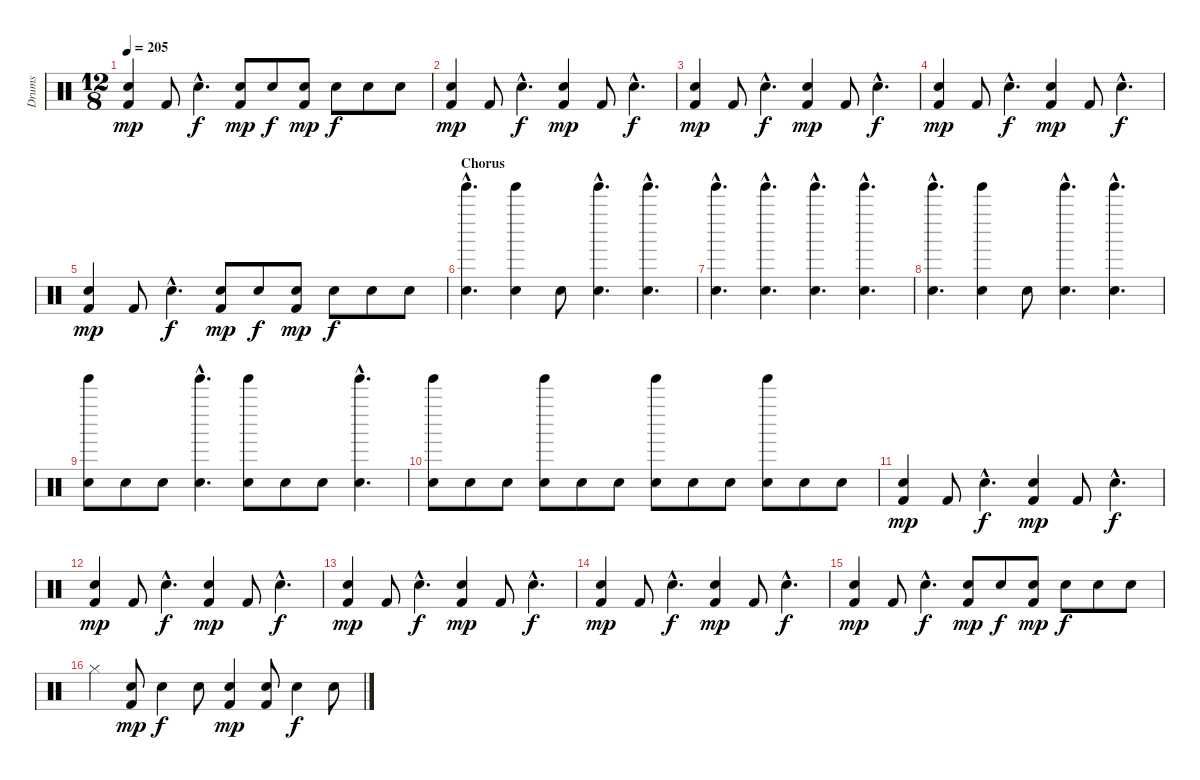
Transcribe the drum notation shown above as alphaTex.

\track ("Drums" "Drums") {instrument percussion}
\staff {score}
\articulation defaults
\ts (12 8)
\tempo 205
\clef neutral
\ks c
("Snare (hit) 2" "Kick (hit) 2").4{dy mp} "Kick (hit) 2".8 "Snare (hit) 2"{hac}.4{d dy f} ("Snare (hit) 2" "Kick (hit) 2").8{dy mp} "Snare (hit) 2".8{dy f} ("Snare (hit) 2" "Kick (hit) 2").8{dy mp} "Snare (hit) 2".8{dy f} "Snare (hit) 2".8 "Snare (hit) 2".8 |
("Snare (hit) 2" "Kick (hit) 2").4{dy mp volume 10} "Kick (hit) 2".8 "Snare (hit) 2"{hac}.4{d dy f} ("Snare (hit) 2" "Kick (hit) 2").4{dy mp} "Kick (hit) 2".8 "Snare (hit) 2"{hac}.4{d dy f} |
("Snare (hit) 2" "Kick (hit) 2").4{dy mp} "Kick (hit) 2".8 "Snare (hit) 2"{hac}.4{d dy f} ("Snare (hit) 2" "Kick (hit) 2").4{dy mp} "Kick (hit) 2".8 "Snare (hit) 2"{hac}.4{d dy f} |
("Snare (hit) 2" "Kick (hit) 2").4{dy mp volume 10} "Kick (hit) 2".8 "Snare (hit) 2"{hac}.4{d dy f} ("Snare (hit) 2" "Kick (hit) 2").4{dy mp} "Kick (hit) 2".8 "Snare (hit) 2"{hac}.4{d dy f} |
("Snare (hit) 2" "Kick (hit) 2").4{dy mp} "Kick (hit) 2".8 "Snare (hit) 2"{hac}.4{d dy f} ("Snare (hit) 2" "Kick (hit) 2").8{dy mp} "Snare (hit) 2".8{dy f} ("Snare (hit) 2" "Kick (hit) 2").8{dy mp} "Snare (hit) 2".8{dy f} "Snare (hit) 2".8 "Snare (hit) 2".8 |
\section ("" "Chorus")
("Tinkle Bell (hit)"{hac} "Snare (hit) 2"{hac}).4{d} ("Tinkle Bell (hit)" "Snare (hit) 2").4 "Snare (hit) 2".8 ("Tinkle Bell (hit)"{hac} "Snare (hit) 2"{hac}).4{d} ("Tinkle Bell (hit)"{hac} "Snare (hit) 2"{hac}).4{d} |
("Tinkle Bell (hit)"{hac} "Snare (hit) 2"{hac}).4{d} ("Tinkle Bell (hit)"{hac} "Snare (hit) 2"{hac}).4{d} ("Tinkle Bell (hit)"{hac} "Snare (hit) 2"{hac}).4{d} ("Tinkle Bell (hit)"{hac} "Snare (hit) 2"{hac}).4{d} |
("Tinkle Bell (hit)"{hac} "Snare (hit) 2"{hac}).4{d} ("Tinkle Bell (hit)" "Snare (hit) 2").4 "Snare (hit) 2".8 ("Tinkle Bell (hit)"{hac} "Snare (hit) 2"{hac}).4{d} ("Tinkle Bell (hit)"{hac} "Snare (hit) 2"{hac}).4{d} |
("Tinkle Bell (hit)" "Snare (hit) 2").8 "Snare (hit) 2".8 "Snare (hit) 2".8 ("Tinkle Bell (hit)"{hac} "Snare (hit) 2"{hac}).4{d} ("Tinkle Bell (hit)" "Snare (hit) 2").8 "Snare (hit) 2".8 "Snare (hit) 2".8 ("Tinkle Bell (hit)"{hac} "Snare (hit) 2"{hac}).4{d} |
("Tinkle Bell (hit)" "Snare (hit) 2").8 "Snare (hit) 2".8 "Snare (hit) 2".8 ("Tinkle Bell (hit)" "Snare (hit) 2").8 "Snare (hit) 2".8 "Snare (hit) 2".8 ("Tinkle Bell (hit)" "Snare (hit) 2").8 "Snare (hit) 2".8 "Snare (hit) 2".8 ("Tinkle Bell (hit)" "Snare (hit) 2").8 "Snare (hit) 2".8 "Snare (hit) 2".8 |
("Snare (hit) 2" "Kick (hit) 2").4{dy mp volume 10} "Kick (hit) 2".8 "Snare (hit) 2"{hac}.4{d dy f} ("Snare (hit) 2" "Kick (hit) 2").4{dy mp} "Kick (hit) 2".8 "Snare (hit) 2"{hac}.4{d dy f} |
("Snare (hit) 2" "Kick (hit) 2").4{dy mp} "Kick (hit) 2".8 "Snare (hit) 2"{hac}.4{d dy f} ("Snare (hit) 2" "Kick (hit) 2").4{dy mp} "Kick (hit) 2".8 "Snare (hit) 2"{hac}.4{d dy f} |
("Snare (hit) 2" "Kick (hit) 2").4{dy mp volume 10} "Kick (hit) 2".8 "Snare (hit) 2"{hac}.4{d dy f} ("Snare (hit) 2" "Kick (hit) 2").4{dy mp} "Kick (hit) 2".8 "Snare (hit) 2"{hac}.4{d dy f} |
("Snare (hit) 2" "Kick (hit) 2").4{dy mp} "Kick (hit) 2".8 "Snare (hit) 2"{hac}.4{d dy f} ("Snare (hit) 2" "Kick (hit) 2").4{dy mp} "Kick (hit) 2".8 "Snare (hit) 2"{hac}.4{d dy f} |
("Snare (hit) 2" "Kick (hit) 2").4{dy mp volume 10} "Kick (hit) 2".8 "Snare (hit) 2"{hac}.4{d dy f} ("Snare (hit) 2" "Kick (hit) 2").8{dy mp} "Snare (hit) 2".8{dy f} ("Snare (hit) 2" "Kick (hit) 2").8{dy mp} "Snare (hit) 2".8{dy f} "Snare (hit) 2".8 "Snare (hit) 2".8 |
"Hi-Hat (closed)".4 ("Snare (hit) 2" "Kick (hit) 2").8{dy mp} "Snare (hit) 2".4{dy f} "Snare (hit) 2".8 ("Snare (hit) 2" "Kick (hit) 2").4{dy mp} ("Snare (hit) 2" "Kick (hit) 2").8 "Snare (hit) 2".4{dy f} "Snare (hit) 2".8
